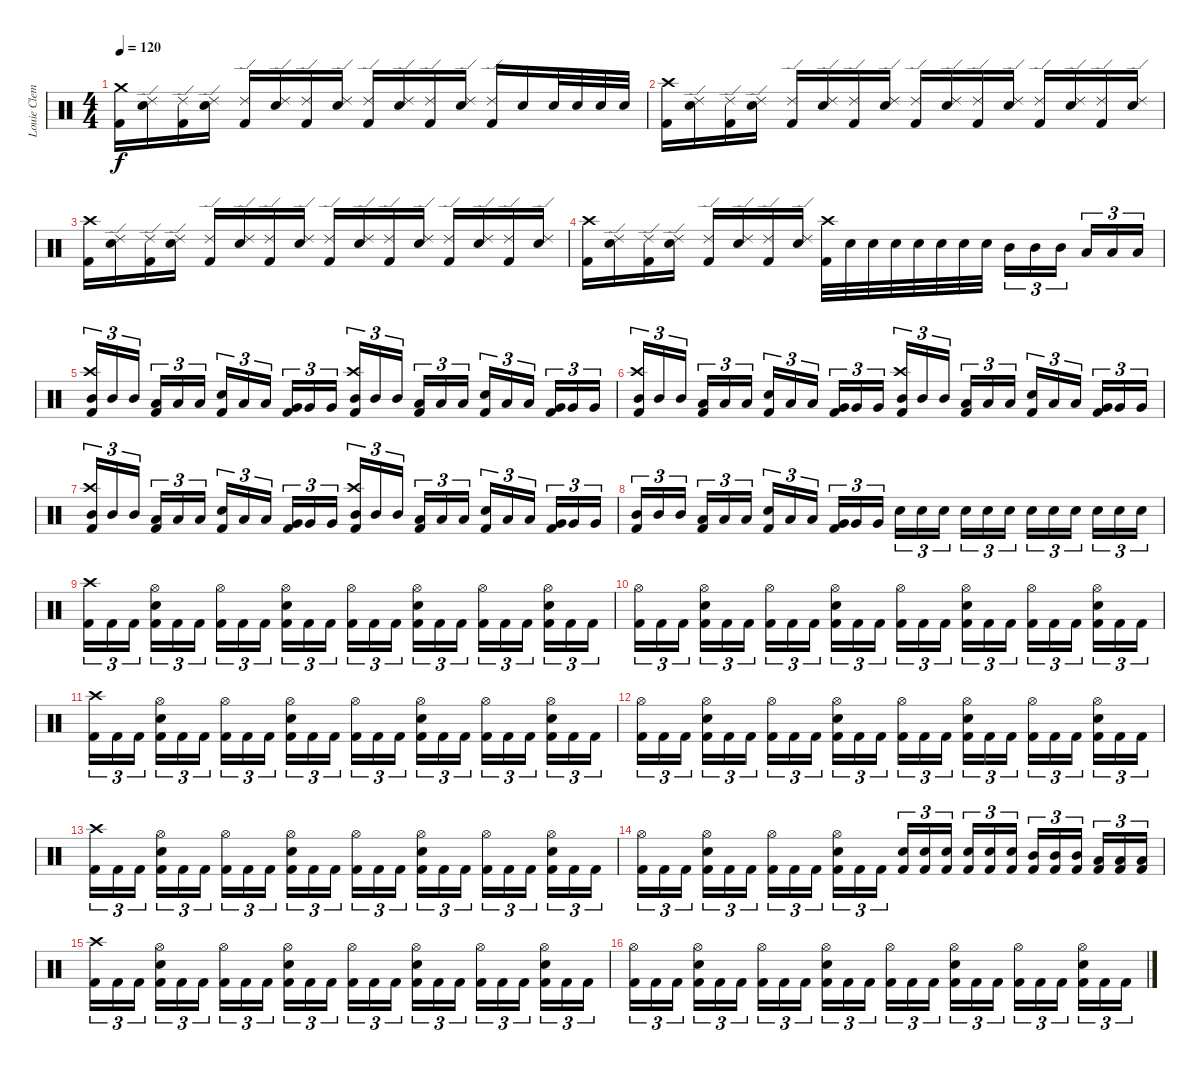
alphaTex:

\track ("Louie Clemente" "Louie Clem") {instrument percussion}
\staff {score}
\articulation defaults
\ts (4 4)
\tempo 120
\clef neutral
\ks c
("Crash medium (hit)" "Kick (hit) 2").16{dy f} ("Ride (edge) 2" "Snare (hit) 2").16 ("Ride (edge) 2" "Kick (hit) 2").16 ("Ride (edge) 2" "Snare (hit) 2").16 ("Ride (edge) 2" "Kick (hit) 2").16 ("Ride (edge) 2" "Snare (hit) 2").16 ("Ride (edge) 2" "Kick (hit) 2").16 ("Ride (edge) 2" "Snare (hit) 2").16 ("Ride (edge) 2" "Kick (hit) 2").16 ("Ride (edge) 2" "Snare (hit) 2").16 ("Ride (edge) 2" "Kick (hit) 2").16 ("Ride (edge) 2" "Snare (hit) 2").16 ("Ride (edge) 2" "Kick (hit) 2").16 "Snare (hit) 2".16 "Snare (hit) 2".32 "Snare (hit) 2".32 "Snare (hit) 2".32 "Snare (hit) 2".32 |
("Crash high (hit)" "Kick (hit) 2").16 ("Ride (edge) 2" "Snare (hit) 2").16 ("Ride (edge) 2" "Kick (hit) 2").16 ("Ride (edge) 2" "Snare (hit) 2").16 ("Ride (edge) 2" "Kick (hit) 2").16 ("Ride (edge) 2" "Snare (hit) 2").16 ("Ride (edge) 2" "Kick (hit) 2").16 ("Ride (edge) 2" "Snare (hit) 2").16 ("Ride (edge) 2" "Kick (hit) 2").16 ("Ride (edge) 2" "Snare (hit) 2").16 ("Ride (edge) 2" "Kick (hit) 2").16 ("Ride (edge) 2" "Snare (hit) 2").16 ("Ride (edge) 2" "Kick (hit) 2").16 ("Ride (edge) 2" "Snare (hit) 2").16 ("Ride (edge) 2" "Kick (hit) 2").16 ("Ride (edge) 2" "Snare (hit) 2").16 |
("Crash high (hit)" "Kick (hit) 2").16 ("Ride (edge) 2" "Snare (hit) 2").16 ("Ride (edge) 2" "Kick (hit) 2").16 ("Ride (edge) 2" "Snare (hit) 2").16 ("Ride (edge) 2" "Kick (hit) 2").16 ("Ride (edge) 2" "Snare (hit) 2").16 ("Ride (edge) 2" "Kick (hit) 2").16 ("Ride (edge) 2" "Snare (hit) 2").16 ("Ride (edge) 2" "Kick (hit) 2").16 ("Ride (edge) 2" "Snare (hit) 2").16 ("Ride (edge) 2" "Kick (hit) 2").16 ("Ride (edge) 2" "Snare (hit) 2").16 ("Ride (edge) 2" "Kick (hit) 2").16 ("Ride (edge) 2" "Snare (hit) 2").16 ("Ride (edge) 2" "Kick (hit) 2").16 ("Ride (edge) 2" "Snare (hit) 2").16 |
("Crash high (hit)" "Kick (hit) 2").16 ("Ride (edge) 2" "Snare (hit) 2").16 ("Ride (edge) 2" "Kick (hit) 2").16 ("Ride (edge) 2" "Snare (hit) 2").16 ("Ride (edge) 2" "Kick (hit) 2").16 ("Ride (edge) 2" "Snare (hit) 2").16 ("Ride (edge) 2" "Kick (hit) 2").16 ("Ride (edge) 2" "Snare (hit) 2").16 ("Crash high (hit)" "Kick (hit) 2").32 "Snare (hit) 2".32 "Snare (hit) 2".32 "Snare (hit) 2".32 "Snare (hit) 2".32 "Snare (hit) 2".32 "Snare (hit) 2".32 "Snare (hit) 2".32 "Mid Tom (hit)".16{tu (3 2)} "Mid Tom (hit)".16{tu (3 2)} "Mid Tom (hit)".16{tu (3 2)} "Low Tom (hit)".16{tu (3 2)} "Low Tom (hit)".16{tu (3 2)} "Low Tom (hit)".16{tu (3 2)} |
("Crash high (hit)" "Mid Tom (hit)" "Kick (hit) 2").16{tu (3 2)} "Mid Tom (hit)".16{tu (3 2)} "Mid Tom (hit)".16{tu (3 2)} ("Low Tom (hit)" "Kick (hit) 2").16{tu (3 2)} "Low Tom (hit)".16{tu (3 2)} "Low Tom (hit)".16{tu (3 2)} ("Snare (hit) 2" "Kick (hit) 2").16{tu (3 2)} "Low Tom (hit)".16{tu (3 2)} "Low Tom (hit)".16{tu (3 2)} ("Very Low Tom (hit)" "Kick (hit) 2").16{tu (3 2)} "Very Low Tom (hit)".16{tu (3 2)} "Very Low Tom (hit)".16{tu (3 2)} ("Crash high (hit)" "Mid Tom (hit)" "Kick (hit) 2").16{tu (3 2)} "Mid Tom (hit)".16{tu (3 2)} "Mid Tom (hit)".16{tu (3 2)} ("Low Tom (hit)" "Kick (hit) 2").16{tu (3 2)} "Low Tom (hit)".16{tu (3 2)} "Low Tom (hit)".16{tu (3 2)} ("Snare (hit) 2" "Kick (hit) 2").16{tu (3 2)} "Low Tom (hit)".16{tu (3 2)} "Low Tom (hit)".16{tu (3 2)} ("Very Low Tom (hit)" "Kick (hit) 2").16{tu (3 2)} "Very Low Tom (hit)".16{tu (3 2)} "Very Low Tom (hit)".16{tu (3 2)} |
("Crash high (hit)" "Mid Tom (hit)" "Kick (hit) 2").16{tu (3 2)} "Mid Tom (hit)".16{tu (3 2)} "Mid Tom (hit)".16{tu (3 2)} ("Low Tom (hit)" "Kick (hit) 2").16{tu (3 2)} "Low Tom (hit)".16{tu (3 2)} "Low Tom (hit)".16{tu (3 2)} ("Snare (hit) 2" "Kick (hit) 2").16{tu (3 2)} "Low Tom (hit)".16{tu (3 2)} "Low Tom (hit)".16{tu (3 2)} ("Very Low Tom (hit)" "Kick (hit) 2").16{tu (3 2)} "Very Low Tom (hit)".16{tu (3 2)} "Very Low Tom (hit)".16{tu (3 2)} ("Crash high (hit)" "Mid Tom (hit)" "Kick (hit) 2").16{tu (3 2)} "Mid Tom (hit)".16{tu (3 2)} "Mid Tom (hit)".16{tu (3 2)} ("Low Tom (hit)" "Kick (hit) 2").16{tu (3 2)} "Low Tom (hit)".16{tu (3 2)} "Low Tom (hit)".16{tu (3 2)} ("Snare (hit) 2" "Kick (hit) 2").16{tu (3 2)} "Low Tom (hit)".16{tu (3 2)} "Low Tom (hit)".16{tu (3 2)} ("Very Low Tom (hit)" "Kick (hit) 2").16{tu (3 2)} "Very Low Tom (hit)".16{tu (3 2)} "Very Low Tom (hit)".16{tu (3 2)} |
("Crash high (hit)" "Mid Tom (hit)" "Kick (hit) 2").16{tu (3 2)} "Mid Tom (hit)".16{tu (3 2)} "Mid Tom (hit)".16{tu (3 2)} ("Low Tom (hit)" "Kick (hit) 2").16{tu (3 2)} "Low Tom (hit)".16{tu (3 2)} "Low Tom (hit)".16{tu (3 2)} ("Snare (hit) 2" "Kick (hit) 2").16{tu (3 2)} "Low Tom (hit)".16{tu (3 2)} "Low Tom (hit)".16{tu (3 2)} ("Very Low Tom (hit)" "Kick (hit) 2").16{tu (3 2)} "Very Low Tom (hit)".16{tu (3 2)} "Very Low Tom (hit)".16{tu (3 2)} ("Crash high (hit)" "Mid Tom (hit)" "Kick (hit) 2").16{tu (3 2)} "Mid Tom (hit)".16{tu (3 2)} "Mid Tom (hit)".16{tu (3 2)} ("Low Tom (hit)" "Kick (hit) 2").16{tu (3 2)} "Low Tom (hit)".16{tu (3 2)} "Low Tom (hit)".16{tu (3 2)} ("Snare (hit) 2" "Kick (hit) 2").16{tu (3 2)} "Low Tom (hit)".16{tu (3 2)} "Low Tom (hit)".16{tu (3 2)} ("Very Low Tom (hit)" "Kick (hit) 2").16{tu (3 2)} "Very Low Tom (hit)".16{tu (3 2)} "Very Low Tom (hit)".16{tu (3 2)} |
("Mid Tom (hit)" "Kick (hit) 2").16{tu (3 2)} "Mid Tom (hit)".16{tu (3 2)} "Mid Tom (hit)".16{tu (3 2)} ("Low Tom (hit)" "Kick (hit) 2").16{tu (3 2)} "Low Tom (hit)".16{tu (3 2)} "Low Tom (hit)".16{tu (3 2)} ("Snare (hit) 2" "Kick (hit) 2").16{tu (3 2)} "Low Tom (hit)".16{tu (3 2)} "Low Tom (hit)".16{tu (3 2)} ("Very Low Tom (hit)" "Kick (hit) 2").16{tu (3 2)} "Very Low Tom (hit)".16{tu (3 2)} "Very Low Tom (hit)".16{tu (3 2)} "Snare (hit) 2".16{tu (3 2)} "Snare (hit) 2".16{tu (3 2)} "Snare (hit) 2".16{tu (3 2)} "Snare (hit) 2".16{tu (3 2)} "Snare (hit) 2".16{tu (3 2)} "Snare (hit) 2".16{tu (3 2)} "Snare (hit) 2".16{tu (3 2)} "Snare (hit) 2".16{tu (3 2)} "Snare (hit) 2".16{tu (3 2)} "Snare (hit) 2".16{tu (3 2)} "Snare (hit) 2".16{tu (3 2)} "Snare (hit) 2".16{tu (3 2)} |
("Crash high (hit)" "Kick (hit) 2").16{tu (3 2)} "Kick (hit) 2".16{tu (3 2)} "Kick (hit) 2".16{tu (3 2)} ("Hi-Hat (open)" "Snare (hit) 2" "Kick (hit) 2").16{tu (3 2)} "Kick (hit) 2".16{tu (3 2)} "Kick (hit) 2".16{tu (3 2)} ("Hi-Hat (open)" "Kick (hit) 2").16{tu (3 2)} "Kick (hit) 2".16{tu (3 2)} "Kick (hit) 2".16{tu (3 2)} ("Hi-Hat (open)" "Snare (hit) 2" "Kick (hit) 2").16{tu (3 2)} "Kick (hit) 2".16{tu (3 2)} "Kick (hit) 2".16{tu (3 2)} ("Hi-Hat (open)" "Kick (hit) 2").16{tu (3 2)} "Kick (hit) 2".16{tu (3 2)} "Kick (hit) 2".16{tu (3 2)} ("Hi-Hat (open)" "Snare (hit) 2" "Kick (hit) 2").16{tu (3 2)} "Kick (hit) 2".16{tu (3 2)} "Kick (hit) 2".16{tu (3 2)} ("Hi-Hat (open)" "Kick (hit) 2").16{tu (3 2)} "Kick (hit) 2".16{tu (3 2)} "Kick (hit) 2".16{tu (3 2)} ("Hi-Hat (open)" "Snare (hit) 2" "Kick (hit) 2").16{tu (3 2)} "Kick (hit) 2".16{tu (3 2)} "Kick (hit) 2".16{tu (3 2)} |
("Hi-Hat (open)" "Kick (hit) 2").16{tu (3 2)} "Kick (hit) 2".16{tu (3 2)} "Kick (hit) 2".16{tu (3 2)} ("Hi-Hat (open)" "Snare (hit) 2" "Kick (hit) 2").16{tu (3 2)} "Kick (hit) 2".16{tu (3 2)} "Kick (hit) 2".16{tu (3 2)} ("Hi-Hat (open)" "Kick (hit) 2").16{tu (3 2)} "Kick (hit) 2".16{tu (3 2)} "Kick (hit) 2".16{tu (3 2)} ("Hi-Hat (open)" "Snare (hit) 2" "Kick (hit) 2").16{tu (3 2)} "Kick (hit) 2".16{tu (3 2)} "Kick (hit) 2".16{tu (3 2)} ("Hi-Hat (open)" "Kick (hit) 2").16{tu (3 2)} "Kick (hit) 2".16{tu (3 2)} "Kick (hit) 2".16{tu (3 2)} ("Hi-Hat (open)" "Snare (hit) 2" "Kick (hit) 2").16{tu (3 2)} "Kick (hit) 2".16{tu (3 2)} "Kick (hit) 2".16{tu (3 2)} ("Hi-Hat (open)" "Kick (hit) 2").16{tu (3 2)} "Kick (hit) 2".16{tu (3 2)} "Kick (hit) 2".16{tu (3 2)} ("Hi-Hat (open)" "Snare (hit) 2" "Kick (hit) 2").16{tu (3 2)} "Kick (hit) 2".16{tu (3 2)} "Kick (hit) 2".16{tu (3 2)} |
("Crash high (hit)" "Kick (hit) 2").16{tu (3 2)} "Kick (hit) 2".16{tu (3 2)} "Kick (hit) 2".16{tu (3 2)} ("Hi-Hat (open)" "Snare (hit) 2" "Kick (hit) 2").16{tu (3 2)} "Kick (hit) 2".16{tu (3 2)} "Kick (hit) 2".16{tu (3 2)} ("Hi-Hat (open)" "Kick (hit) 2").16{tu (3 2)} "Kick (hit) 2".16{tu (3 2)} "Kick (hit) 2".16{tu (3 2)} ("Hi-Hat (open)" "Snare (hit) 2" "Kick (hit) 2").16{tu (3 2)} "Kick (hit) 2".16{tu (3 2)} "Kick (hit) 2".16{tu (3 2)} ("Hi-Hat (open)" "Kick (hit) 2").16{tu (3 2)} "Kick (hit) 2".16{tu (3 2)} "Kick (hit) 2".16{tu (3 2)} ("Hi-Hat (open)" "Snare (hit) 2" "Kick (hit) 2").16{tu (3 2)} "Kick (hit) 2".16{tu (3 2)} "Kick (hit) 2".16{tu (3 2)} ("Hi-Hat (open)" "Kick (hit) 2").16{tu (3 2)} "Kick (hit) 2".16{tu (3 2)} "Kick (hit) 2".16{tu (3 2)} ("Hi-Hat (open)" "Snare (hit) 2" "Kick (hit) 2").16{tu (3 2)} "Kick (hit) 2".16{tu (3 2)} "Kick (hit) 2".16{tu (3 2)} |
("Hi-Hat (open)" "Kick (hit) 2").16{tu (3 2)} "Kick (hit) 2".16{tu (3 2)} "Kick (hit) 2".16{tu (3 2)} ("Hi-Hat (open)" "Snare (hit) 2" "Kick (hit) 2").16{tu (3 2)} "Kick (hit) 2".16{tu (3 2)} "Kick (hit) 2".16{tu (3 2)} ("Hi-Hat (open)" "Kick (hit) 2").16{tu (3 2)} "Kick (hit) 2".16{tu (3 2)} "Kick (hit) 2".16{tu (3 2)} ("Hi-Hat (open)" "Snare (hit) 2" "Kick (hit) 2").16{tu (3 2)} "Kick (hit) 2".16{tu (3 2)} "Kick (hit) 2".16{tu (3 2)} ("Hi-Hat (open)" "Kick (hit) 2").16{tu (3 2)} "Kick (hit) 2".16{tu (3 2)} "Kick (hit) 2".16{tu (3 2)} ("Hi-Hat (open)" "Snare (hit) 2" "Kick (hit) 2").16{tu (3 2)} "Kick (hit) 2".16{tu (3 2)} "Kick (hit) 2".16{tu (3 2)} ("Hi-Hat (open)" "Kick (hit) 2").16{tu (3 2)} "Kick (hit) 2".16{tu (3 2)} "Kick (hit) 2".16{tu (3 2)} ("Hi-Hat (open)" "Snare (hit) 2" "Kick (hit) 2").16{tu (3 2)} "Kick (hit) 2".16{tu (3 2)} "Kick (hit) 2".16{tu (3 2)} |
("Crash high (hit)" "Kick (hit) 2").16{tu (3 2)} "Kick (hit) 2".16{tu (3 2)} "Kick (hit) 2".16{tu (3 2)} ("Hi-Hat (open)" "Snare (hit) 2" "Kick (hit) 2").16{tu (3 2)} "Kick (hit) 2".16{tu (3 2)} "Kick (hit) 2".16{tu (3 2)} ("Hi-Hat (open)" "Kick (hit) 2").16{tu (3 2)} "Kick (hit) 2".16{tu (3 2)} "Kick (hit) 2".16{tu (3 2)} ("Hi-Hat (open)" "Snare (hit) 2" "Kick (hit) 2").16{tu (3 2)} "Kick (hit) 2".16{tu (3 2)} "Kick (hit) 2".16{tu (3 2)} ("Hi-Hat (open)" "Kick (hit) 2").16{tu (3 2)} "Kick (hit) 2".16{tu (3 2)} "Kick (hit) 2".16{tu (3 2)} ("Hi-Hat (open)" "Snare (hit) 2" "Kick (hit) 2").16{tu (3 2)} "Kick (hit) 2".16{tu (3 2)} "Kick (hit) 2".16{tu (3 2)} ("Hi-Hat (open)" "Kick (hit) 2").16{tu (3 2)} "Kick (hit) 2".16{tu (3 2)} "Kick (hit) 2".16{tu (3 2)} ("Hi-Hat (open)" "Snare (hit) 2" "Kick (hit) 2").16{tu (3 2)} "Kick (hit) 2".16{tu (3 2)} "Kick (hit) 2".16{tu (3 2)} |
("Hi-Hat (open)" "Kick (hit) 2").16{tu (3 2)} "Kick (hit) 2".16{tu (3 2)} "Kick (hit) 2".16{tu (3 2)} ("Hi-Hat (open)" "Snare (hit) 2" "Kick (hit) 2").16{tu (3 2)} "Kick (hit) 2".16{tu (3 2)} "Kick (hit) 2".16{tu (3 2)} ("Hi-Hat (open)" "Kick (hit) 2").16{tu (3 2)} "Kick (hit) 2".16{tu (3 2)} "Kick (hit) 2".16{tu (3 2)} ("Hi-Hat (open)" "Snare (hit) 2" "Kick (hit) 2").16{tu (3 2)} "Kick (hit) 2".16{tu (3 2)} "Kick (hit) 2".16{tu (3 2)} ("Snare (hit) 2" "Kick (hit) 2").16{tu (3 2)} ("Snare (hit) 2" "Kick (hit) 2").16{tu (3 2)} ("Snare (hit) 2" "Kick (hit) 2").16{tu (3 2)} ("Snare (hit) 2" "Kick (hit) 2").16{tu (3 2)} ("Snare (hit) 2" "Kick (hit) 2").16{tu (3 2)} ("Snare (hit) 2" "Kick (hit) 2").16{tu (3 2)} ("Mid Tom (hit)" "Kick (hit) 2").16{tu (3 2)} ("Mid Tom (hit)" "Kick (hit) 2").16{tu (3 2)} ("Mid Tom (hit)" "Kick (hit) 2").16{tu (3 2)} ("Low Tom (hit)" "Kick (hit) 2").16{tu (3 2)} ("Low Tom (hit)" "Kick (hit) 2").16{tu (3 2)} ("Low Tom (hit)" "Kick (hit) 2").16{tu (3 2)} |
("Crash high (hit)" "Kick (hit) 2").16{tu (3 2)} "Kick (hit) 2".16{tu (3 2)} "Kick (hit) 2".16{tu (3 2)} ("Hi-Hat (open)" "Snare (hit) 2" "Kick (hit) 2").16{tu (3 2)} "Kick (hit) 2".16{tu (3 2)} "Kick (hit) 2".16{tu (3 2)} ("Hi-Hat (open)" "Kick (hit) 2").16{tu (3 2)} "Kick (hit) 2".16{tu (3 2)} "Kick (hit) 2".16{tu (3 2)} ("Hi-Hat (open)" "Snare (hit) 2" "Kick (hit) 2").16{tu (3 2)} "Kick (hit) 2".16{tu (3 2)} "Kick (hit) 2".16{tu (3 2)} ("Hi-Hat (open)" "Kick (hit) 2").16{tu (3 2)} "Kick (hit) 2".16{tu (3 2)} "Kick (hit) 2".16{tu (3 2)} ("Hi-Hat (open)" "Snare (hit) 2" "Kick (hit) 2").16{tu (3 2)} "Kick (hit) 2".16{tu (3 2)} "Kick (hit) 2".16{tu (3 2)} ("Hi-Hat (open)" "Kick (hit) 2").16{tu (3 2)} "Kick (hit) 2".16{tu (3 2)} "Kick (hit) 2".16{tu (3 2)} ("Hi-Hat (open)" "Snare (hit) 2" "Kick (hit) 2").16{tu (3 2)} "Kick (hit) 2".16{tu (3 2)} "Kick (hit) 2".16{tu (3 2)} |
("Hi-Hat (open)" "Kick (hit) 2").16{tu (3 2)} "Kick (hit) 2".16{tu (3 2)} "Kick (hit) 2".16{tu (3 2)} ("Hi-Hat (open)" "Snare (hit) 2" "Kick (hit) 2").16{tu (3 2)} "Kick (hit) 2".16{tu (3 2)} "Kick (hit) 2".16{tu (3 2)} ("Hi-Hat (open)" "Kick (hit) 2").16{tu (3 2)} "Kick (hit) 2".16{tu (3 2)} "Kick (hit) 2".16{tu (3 2)} ("Hi-Hat (open)" "Snare (hit) 2" "Kick (hit) 2").16{tu (3 2)} "Kick (hit) 2".16{tu (3 2)} "Kick (hit) 2".16{tu (3 2)} ("Hi-Hat (open)" "Kick (hit) 2").16{tu (3 2)} "Kick (hit) 2".16{tu (3 2)} "Kick (hit) 2".16{tu (3 2)} ("Hi-Hat (open)" "Snare (hit) 2" "Kick (hit) 2").16{tu (3 2)} "Kick (hit) 2".16{tu (3 2)} "Kick (hit) 2".16{tu (3 2)} ("Hi-Hat (open)" "Kick (hit) 2").16{tu (3 2)} "Kick (hit) 2".16{tu (3 2)} "Kick (hit) 2".16{tu (3 2)} ("Hi-Hat (open)" "Snare (hit) 2" "Kick (hit) 2").16{tu (3 2)} "Kick (hit) 2".16{tu (3 2)} "Kick (hit) 2".16{tu (3 2)}
